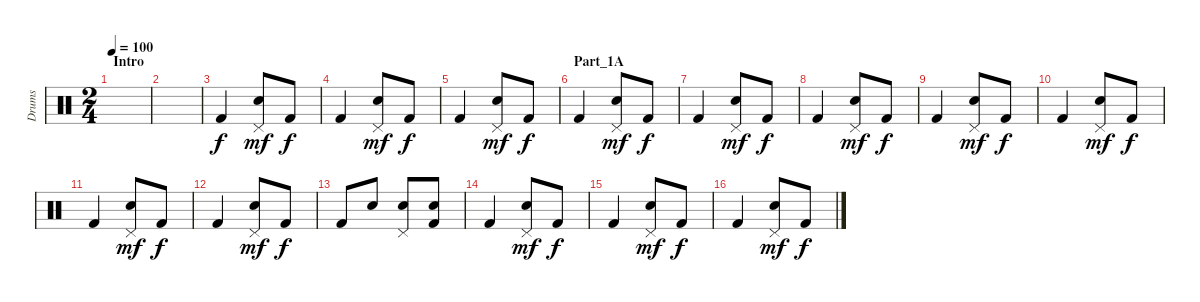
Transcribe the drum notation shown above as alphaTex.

\track ("Drums" "Drums") {instrument percussion}
\staff {score}
\articulation defaults
\ts (2 4)
\section ("" "Intro")
\tempo 100
\clef neutral
\ks c
|
|
"Kick (hit) 2".4 ("Pedal Hi-Hat (hit)" "Electric Snare (hit)").8{dy mf} "Kick (hit) 2".8{dy f} |
"Kick (hit) 2".4 ("Pedal Hi-Hat (hit)" "Electric Snare (hit)").8{dy mf} "Kick (hit) 2".8{dy f} |
"Kick (hit) 2".4 ("Pedal Hi-Hat (hit)" "Electric Snare (hit)").8{dy mf} "Kick (hit) 2".8{dy f} |
\section ("" "Part_1A")
"Kick (hit) 2".4 ("Pedal Hi-Hat (hit)" "Electric Snare (hit)").8{dy mf} "Kick (hit) 2".8{dy f} |
"Kick (hit) 2".4 ("Pedal Hi-Hat (hit)" "Electric Snare (hit)").8{dy mf} "Kick (hit) 2".8{dy f} |
"Kick (hit) 2".4 ("Pedal Hi-Hat (hit)" "Electric Snare (hit)").8{dy mf} "Kick (hit) 2".8{dy f} |
"Kick (hit) 2".4 ("Pedal Hi-Hat (hit)" "Electric Snare (hit)").8{dy mf} "Kick (hit) 2".8{dy f} |
"Kick (hit) 2".4 ("Pedal Hi-Hat (hit)" "Electric Snare (hit)").8{dy mf} "Kick (hit) 2".8{dy f} |
"Kick (hit) 2".4 ("Pedal Hi-Hat (hit)" "Electric Snare (hit)").8{dy mf} "Kick (hit) 2".8{dy f} |
"Kick (hit) 2".4 ("Pedal Hi-Hat (hit)" "Electric Snare (hit)").8{dy mf} "Kick (hit) 2".8{dy f} |
"Kick (hit) 2".8 "Electric Snare (hit)".8 ("Pedal Hi-Hat (hit)" "Electric Snare (hit)").8 ("Electric Snare (hit)" "Kick (hit) 2").8 |
"Kick (hit) 2".4 ("Pedal Hi-Hat (hit)" "Electric Snare (hit)").8{dy mf} "Kick (hit) 2".8{dy f} |
"Kick (hit) 2".4 ("Pedal Hi-Hat (hit)" "Electric Snare (hit)").8{dy mf} "Kick (hit) 2".8{dy f} |
"Kick (hit) 2".4 ("Pedal Hi-Hat (hit)" "Electric Snare (hit)").8{dy mf} "Kick (hit) 2".8{dy f}
